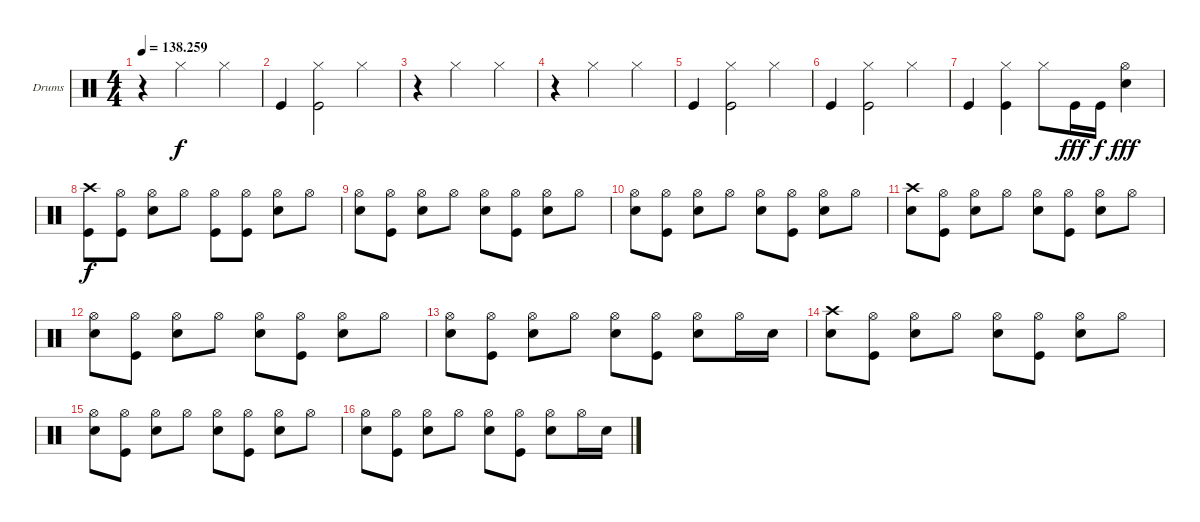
\bracketExtendMode groupsimilarinstruments
\firstSystemTrackNameOrientation horizontal
\otherSystemsTrackNameOrientation horizontal
\track ("Drumkit" "Drums") {instrument percussion}
\staff {score}
\articulation defaults
\ts (4 4)
\tempo
138.259
\accidentals auto
\clef neutral
\ottava regular
\simile none
\ks c
r.4{dy f} "Hi-Hat (closed)".2 "Hi-Hat (closed)".4 |
"Kick (hit)".4 ("Hi-Hat (closed)" "Kick (hit)").2 "Hi-Hat (closed)".4 |
r.4 "Hi-Hat (closed)".2 "Hi-Hat (closed)".4 |
r.4 "Hi-Hat (closed)".2 "Hi-Hat (closed)".4 |
"Kick (hit)".4 ("Hi-Hat (closed)" "Kick (hit)").2 "Hi-Hat (closed)".4 |
"Kick (hit)".4 ("Hi-Hat (closed)" "Kick (hit)").2 "Hi-Hat (closed)".4 |
"Kick (hit)".4 ("Hi-Hat (closed)" "Kick (hit)").4 "Hi-Hat (closed)".8 "Kick (hit)".16{dy fff} "Kick (hit)".16{dy f} ("Hi-Hat (open)" "Snare (hit) 2").4{dy fff} |
("Crash high (hit)" "Kick (hit)").8{dy f} ("Hi-Hat (open)" "Kick (hit)").8 ("Hi-Hat (open)" "Snare (hit) 2").8 "Hi-Hat (open)".8 ("Hi-Hat (open)" "Kick (hit)").8 ("Hi-Hat (open)" "Kick (hit)").8 ("Hi-Hat (open)" "Snare (hit) 2").8 "Hi-Hat (open)".8 |
("Hi-Hat (open)" "Snare (hit) 2").8 ("Hi-Hat (open)" "Kick (hit)").8 ("Hi-Hat (open)" "Snare (hit) 2").8 "Hi-Hat (open)".8 ("Hi-Hat (open)" "Snare (hit) 2").8 ("Hi-Hat (open)" "Kick (hit)").8 ("Hi-Hat (open)" "Snare (hit) 2").8 "Hi-Hat (open)".8 |
("Hi-Hat (open)" "Snare (hit) 2").8 ("Hi-Hat (open)" "Kick (hit)").8 ("Hi-Hat (open)" "Snare (hit) 2").8 "Hi-Hat (open)".8 ("Hi-Hat (open)" "Snare (hit) 2").8 ("Hi-Hat (open)" "Kick (hit)").8 ("Hi-Hat (open)" "Snare (hit) 2").8 "Hi-Hat (open)".8 |
("Crash high (hit)" "Snare (hit) 2").8 ("Hi-Hat (open)" "Kick (hit)").8 ("Hi-Hat (open)" "Snare (hit) 2").8 "Hi-Hat (open)".8 ("Hi-Hat (open)" "Snare (hit) 2").8 ("Hi-Hat (open)" "Kick (hit)").8 ("Hi-Hat (open)" "Snare (hit) 2").8 "Hi-Hat (open)".8 |
("Hi-Hat (open)" "Snare (hit) 2").8 ("Hi-Hat (open)" "Kick (hit)").8 ("Hi-Hat (open)" "Snare (hit) 2").8 "Hi-Hat (open)".8 ("Hi-Hat (open)" "Snare (hit) 2").8 ("Hi-Hat (open)" "Kick (hit)").8 ("Hi-Hat (open)" "Snare (hit) 2").8 "Hi-Hat (open)".8 |
("Hi-Hat (open)" "Snare (hit) 2").8 ("Hi-Hat (open)" "Kick (hit)").8 ("Hi-Hat (open)" "Snare (hit) 2").8 "Hi-Hat (open)".8 ("Hi-Hat (open)" "Snare (hit) 2").8 ("Hi-Hat (open)" "Kick (hit)").8 ("Hi-Hat (open)" "Snare (hit) 2").8 "Hi-Hat (open)".16 "Snare (hit) 2".16 |
("Crash high (hit)" "Snare (hit) 2").8 ("Hi-Hat (open)" "Kick (hit)").8 ("Hi-Hat (open)" "Snare (hit) 2").8 "Hi-Hat (open)".8 ("Hi-Hat (open)" "Snare (hit) 2").8 ("Hi-Hat (open)" "Kick (hit)").8 ("Hi-Hat (open)" "Snare (hit) 2").8 "Hi-Hat (open)".8 |
("Hi-Hat (open)" "Snare (hit) 2").8 ("Hi-Hat (open)" "Kick (hit)").8 ("Hi-Hat (open)" "Snare (hit) 2").8 "Hi-Hat (open)".8 ("Hi-Hat (open)" "Snare (hit) 2").8 ("Hi-Hat (open)" "Kick (hit)").8 ("Hi-Hat (open)" "Snare (hit) 2").8 "Hi-Hat (open)".8 |
("Hi-Hat (open)" "Snare (hit) 2").8 ("Hi-Hat (open)" "Kick (hit)").8 ("Hi-Hat (open)" "Snare (hit) 2").8 "Hi-Hat (open)".8 ("Hi-Hat (open)" "Snare (hit) 2").8 ("Hi-Hat (open)" "Kick (hit)").8 ("Hi-Hat (open)" "Snare (hit) 2").8 "Hi-Hat (open)".16 "Snare (hit) 2".16
